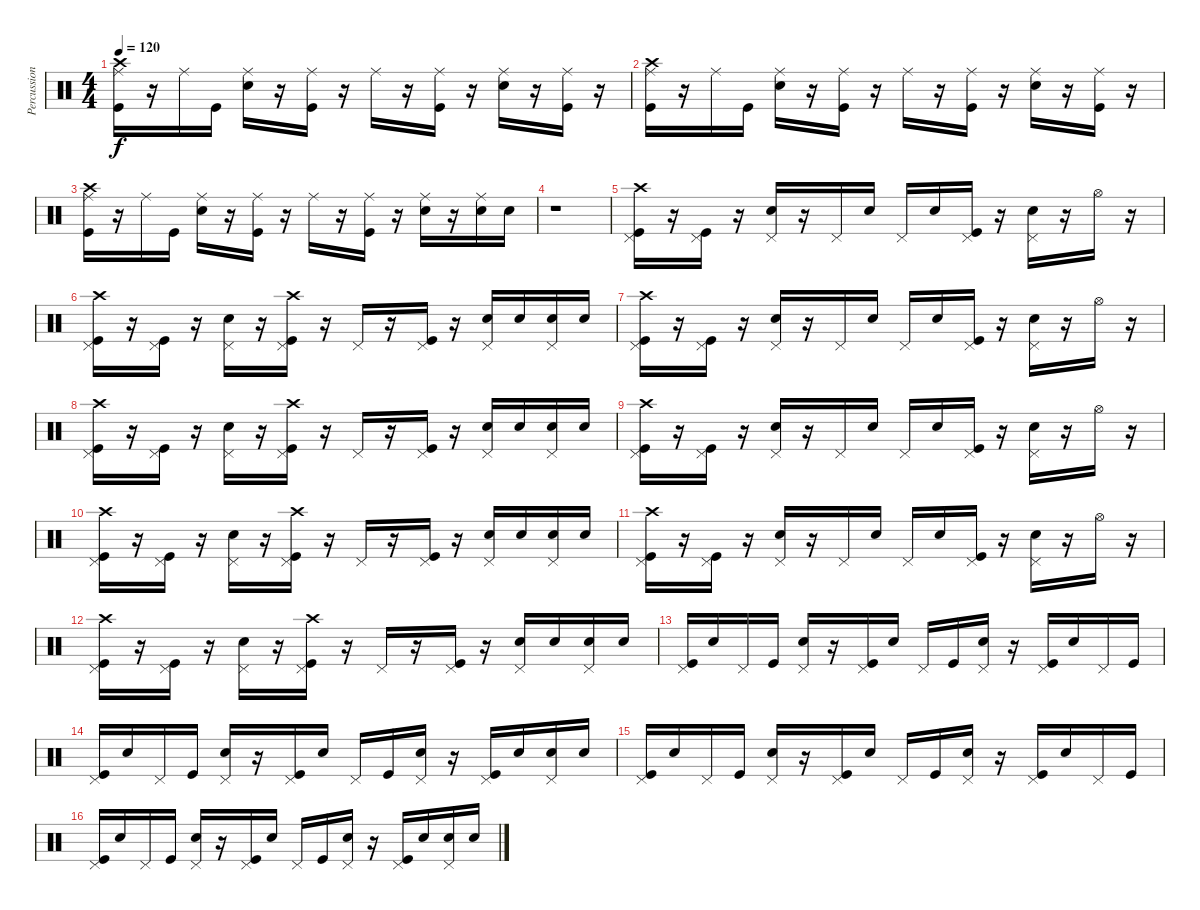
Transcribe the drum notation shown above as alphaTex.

\track ("Percussion" "Percussion") {instrument percussion}
\staff {score}
\articulation defaults
\ts (4 4)
\tempo 120
\clef neutral
\ks c
("Crash high (hit)" "Ride (middle)" "Kick (hit)").16{dy f} r.16 "Ride (middle)".16 "Kick (hit)".16 ("Ride (middle)" "Electric Snare (hit)").16 r.16 ("Ride (middle)" "Kick (hit)").16 r.16 "Ride (middle)".16 r.16 ("Ride (middle)" "Kick (hit)").16 r.16 ("Ride (middle)" "Electric Snare (hit)").16 r.16 ("Ride (middle)" "Kick (hit)").16 r.16 |
("Crash high (hit)" "Ride (middle)" "Kick (hit)").16 r.16 "Ride (middle)".16 "Kick (hit)".16 ("Ride (middle)" "Electric Snare (hit)").16 r.16 ("Ride (middle)" "Kick (hit)").16 r.16 "Ride (middle)".16 r.16 ("Ride (middle)" "Kick (hit)").16 r.16 ("Ride (middle)" "Electric Snare (hit)").16 r.16 ("Ride (middle)" "Kick (hit)").16 r.16 |
("Crash high (hit)" "Ride (middle)" "Kick (hit)").16 r.16 "Ride (middle)".16 "Kick (hit)".16 ("Ride (middle)" "Electric Snare (hit)").16 r.16 ("Ride (middle)" "Kick (hit)").16 r.16 "Ride (middle)".16 r.16 ("Ride (middle)" "Kick (hit)").16 r.16 ("Ride (middle)" "Electric Snare (hit)").16 r.16 ("Ride (middle)" "Electric Snare (hit)").16 "Electric Snare (hit)".16 |
r.1 |
("Pedal Hi-Hat (hit)" "Crash high (hit)" "Kick (hit)").16 r.16 ("Pedal Hi-Hat (hit)" "Kick (hit)").16 r.16 ("Pedal Hi-Hat (hit)" "Electric Snare (hit)").16 r.16 "Pedal Hi-Hat (hit)".16 "Electric Snare (hit)".16 "Pedal Hi-Hat (hit)".16 "Electric Snare (hit)".16 ("Pedal Hi-Hat (hit)" "Kick (hit)").16 r.16 ("Pedal Hi-Hat (hit)" "Electric Snare (hit)").16 r.16 "Hi-Hat (open)".16 r.16 |
("Crash high (hit)" "Pedal Hi-Hat (hit)" "Kick (hit)").16 r.16 ("Pedal Hi-Hat (hit)" "Kick (hit)").16 r.16 ("Pedal Hi-Hat (hit)" "Electric Snare (hit)").16 r.16 ("Crash high (hit)" "Pedal Hi-Hat (hit)" "Kick (hit)").16 r.16 "Pedal Hi-Hat (hit)".16 r.16 ("Pedal Hi-Hat (hit)" "Kick (hit)").16 r.16 ("Pedal Hi-Hat (hit)" "Electric Snare (hit)").16 "Electric Snare (hit)".16 ("Pedal Hi-Hat (hit)" "Electric Snare (hit)").16 "Electric Snare (hit)".16 |
("Pedal Hi-Hat (hit)" "Crash high (hit)" "Kick (hit)").16 r.16 ("Pedal Hi-Hat (hit)" "Kick (hit)").16 r.16 ("Pedal Hi-Hat (hit)" "Electric Snare (hit)").16 r.16 "Pedal Hi-Hat (hit)".16 "Electric Snare (hit)".16 "Pedal Hi-Hat (hit)".16 "Electric Snare (hit)".16 ("Pedal Hi-Hat (hit)" "Kick (hit)").16 r.16 ("Pedal Hi-Hat (hit)" "Electric Snare (hit)").16 r.16 "Hi-Hat (open)".16 r.16 |
("Crash high (hit)" "Pedal Hi-Hat (hit)" "Kick (hit)").16 r.16 ("Pedal Hi-Hat (hit)" "Kick (hit)").16 r.16 ("Pedal Hi-Hat (hit)" "Electric Snare (hit)").16 r.16 ("Crash high (hit)" "Pedal Hi-Hat (hit)" "Kick (hit)").16 r.16 "Pedal Hi-Hat (hit)".16 r.16 ("Pedal Hi-Hat (hit)" "Kick (hit)").16 r.16 ("Pedal Hi-Hat (hit)" "Electric Snare (hit)").16 "Electric Snare (hit)".16 ("Pedal Hi-Hat (hit)" "Electric Snare (hit)").16 "Electric Snare (hit)".16 |
("Pedal Hi-Hat (hit)" "Crash high (hit)" "Kick (hit)").16 r.16 ("Pedal Hi-Hat (hit)" "Kick (hit)").16 r.16 ("Pedal Hi-Hat (hit)" "Electric Snare (hit)").16 r.16 "Pedal Hi-Hat (hit)".16 "Electric Snare (hit)".16 "Pedal Hi-Hat (hit)".16 "Electric Snare (hit)".16 ("Pedal Hi-Hat (hit)" "Kick (hit)").16 r.16 ("Pedal Hi-Hat (hit)" "Electric Snare (hit)").16 r.16 "Hi-Hat (open)".16 r.16 |
("Crash high (hit)" "Pedal Hi-Hat (hit)" "Kick (hit)").16 r.16 ("Pedal Hi-Hat (hit)" "Kick (hit)").16 r.16 ("Pedal Hi-Hat (hit)" "Electric Snare (hit)").16 r.16 ("Crash high (hit)" "Pedal Hi-Hat (hit)" "Kick (hit)").16 r.16 "Pedal Hi-Hat (hit)".16 r.16 ("Pedal Hi-Hat (hit)" "Kick (hit)").16 r.16 ("Pedal Hi-Hat (hit)" "Electric Snare (hit)").16 "Electric Snare (hit)".16 ("Pedal Hi-Hat (hit)" "Electric Snare (hit)").16 "Electric Snare (hit)".16 |
("Pedal Hi-Hat (hit)" "Crash high (hit)" "Kick (hit)").16 r.16 ("Pedal Hi-Hat (hit)" "Kick (hit)").16 r.16 ("Pedal Hi-Hat (hit)" "Electric Snare (hit)").16 r.16 "Pedal Hi-Hat (hit)".16 "Electric Snare (hit)".16 "Pedal Hi-Hat (hit)".16 "Electric Snare (hit)".16 ("Pedal Hi-Hat (hit)" "Kick (hit)").16 r.16 ("Pedal Hi-Hat (hit)" "Electric Snare (hit)").16 r.16 "Hi-Hat (open)".16 r.16 |
("Crash high (hit)" "Pedal Hi-Hat (hit)" "Kick (hit)").16 r.16 ("Pedal Hi-Hat (hit)" "Kick (hit)").16 r.16 ("Pedal Hi-Hat (hit)" "Electric Snare (hit)").16 r.16 ("Crash high (hit)" "Pedal Hi-Hat (hit)" "Kick (hit)").16 r.16 "Pedal Hi-Hat (hit)".16 r.16 ("Pedal Hi-Hat (hit)" "Kick (hit)").16 r.16 ("Pedal Hi-Hat (hit)" "Electric Snare (hit)").16 "Electric Snare (hit)".16 ("Pedal Hi-Hat (hit)" "Electric Snare (hit)").16 "Electric Snare (hit)".16 |
("Pedal Hi-Hat (hit)" "Kick (hit)").16 "Electric Snare (hit)".16 "Pedal Hi-Hat (hit)".16 "Kick (hit)".16 ("Pedal Hi-Hat (hit)" "Electric Snare (hit)").16 r.16 ("Pedal Hi-Hat (hit)" "Kick (hit)").16 "Electric Snare (hit)".16 "Pedal Hi-Hat (hit)".16 "Kick (hit)".16 ("Pedal Hi-Hat (hit)" "Electric Snare (hit)").16 r.16 ("Pedal Hi-Hat (hit)" "Kick (hit)").16 "Electric Snare (hit)".16 "Pedal Hi-Hat (hit)".16 "Kick (hit)".16 |
("Pedal Hi-Hat (hit)" "Kick (hit)").16 "Electric Snare (hit)".16 "Pedal Hi-Hat (hit)".16 "Kick (hit)".16 ("Pedal Hi-Hat (hit)" "Electric Snare (hit)").16 r.16 ("Pedal Hi-Hat (hit)" "Kick (hit)").16 "Electric Snare (hit)".16 "Pedal Hi-Hat (hit)".16 "Kick (hit)".16 ("Pedal Hi-Hat (hit)" "Electric Snare (hit)").16 r.16 ("Pedal Hi-Hat (hit)" "Kick (hit)").16 "Electric Snare (hit)".16 ("Pedal Hi-Hat (hit)" "Electric Snare (hit)").16 "Electric Snare (hit)".16 |
("Pedal Hi-Hat (hit)" "Kick (hit)").16 "Electric Snare (hit)".16 "Pedal Hi-Hat (hit)".16 "Kick (hit)".16 ("Pedal Hi-Hat (hit)" "Electric Snare (hit)").16 r.16 ("Pedal Hi-Hat (hit)" "Kick (hit)").16 "Electric Snare (hit)".16 "Pedal Hi-Hat (hit)".16 "Kick (hit)".16 ("Pedal Hi-Hat (hit)" "Electric Snare (hit)").16 r.16 ("Pedal Hi-Hat (hit)" "Kick (hit)").16 "Electric Snare (hit)".16 "Pedal Hi-Hat (hit)".16 "Kick (hit)".16 |
("Pedal Hi-Hat (hit)" "Kick (hit)").16 "Electric Snare (hit)".16 "Pedal Hi-Hat (hit)".16 "Kick (hit)".16 ("Pedal Hi-Hat (hit)" "Electric Snare (hit)").16 r.16 ("Pedal Hi-Hat (hit)" "Kick (hit)").16 "Electric Snare (hit)".16 "Pedal Hi-Hat (hit)".16 "Kick (hit)".16 ("Pedal Hi-Hat (hit)" "Electric Snare (hit)").16 r.16 ("Pedal Hi-Hat (hit)" "Kick (hit)").16 "Electric Snare (hit)".16 ("Pedal Hi-Hat (hit)" "Electric Snare (hit)").16 "Electric Snare (hit)".16
